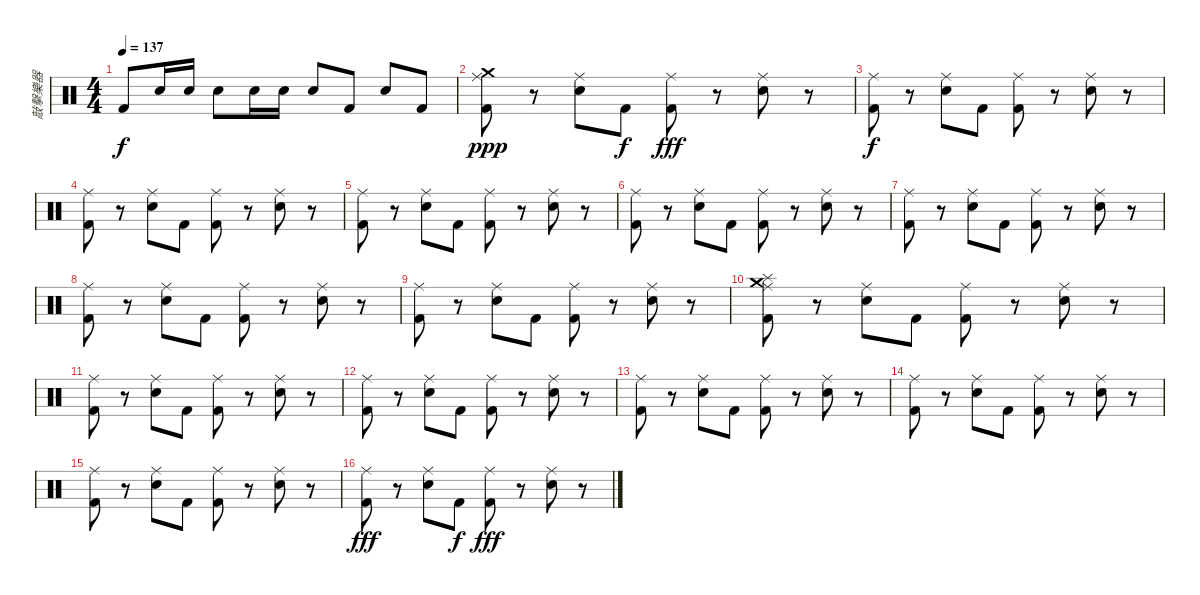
\track ("敲擊樂器" "敲擊樂器") {instrument percussion}
\staff {score}
\articulation defaults
\ts (4 4)
\tempo 137
\clef neutral
\ks c "Kick (hit) 2".8{dy f} "Snare (hit) 2".16 "Snare (hit) 2".16 "Snare (hit) 2".8 "Snare (hit) 2".16 "Snare (hit) 2".16 "Snare (hit) 2".8 "Kick (hit) 2".8 "Snare (hit) 2".8 "Kick (hit) 2".8
|
("Crash medium (hit)" "Kick (hit) 2" "Ride (middle)").8{dy ppp} r.8 ("Snare (hit) 2" "Ride (middle)").8 "Kick (hit) 2".8{dy f} ("Kick (hit) 2" "Ride (middle)").8{dy fff} r.8 ("Snare (hit) 2" "Ride (middle)").8 r.8 |
("Kick (hit) 2" "Ride (middle)").8{dy f} r.8 ("Snare (hit) 2" "Ride (middle)").8 "Kick (hit) 2".8 ("Kick (hit) 2" "Ride (middle)").8 r.8 ("Snare (hit) 2" "Ride (middle)").8 r.8 |
("Kick (hit) 2" "Ride (middle)").8 r.8 ("Snare (hit) 2" "Ride (middle)").8 "Kick (hit) 2".8 ("Kick (hit) 2" "Ride (middle)").8 r.8 ("Snare (hit) 2" "Ride (middle)").8 r.8 |
("Kick (hit) 2" "Ride (middle)").8 r.8 ("Snare (hit) 2" "Ride (middle)").8 "Kick (hit) 2".8 ("Kick (hit) 2" "Ride (middle)").8 r.8 ("Snare (hit) 2" "Ride (middle)").8 r.8 |
("Kick (hit) 2" "Ride (middle)").8 r.8 ("Snare (hit) 2" "Ride (middle)").8 "Kick (hit) 2".8 ("Kick (hit) 2" "Ride (middle)").8 r.8 ("Snare (hit) 2" "Ride (middle)").8 r.8 |
("Kick (hit) 2" "Ride (middle)").8 r.8 ("Snare (hit) 2" "Ride (middle)").8 "Kick (hit) 2".8 ("Kick (hit) 2" "Ride (middle)").8 r.8 ("Snare (hit) 2" "Ride (middle)").8 r.8 |
("Kick (hit) 2" "Ride (middle)").8 r.8 ("Snare (hit) 2" "Ride (middle)").8 "Kick (hit) 2".8 ("Kick (hit) 2" "Ride (middle)").8 r.8 ("Snare (hit) 2" "Ride (middle)").8 r.8 |
("Kick (hit) 2" "Ride (middle)").8 r.8 ("Snare (hit) 2" "Ride (middle)").8 "Kick (hit) 2".8 ("Kick (hit) 2" "Ride (middle)").8 r.8 ("Snare (hit) 2" "Ride (middle)").8 r.8 |
("Splash (hit)" "Crash medium (hit)" "Kick (hit) 2" "Ride (middle)").8 r.8 ("Snare (hit) 2" "Ride (middle)").8 "Kick (hit) 2".8 ("Kick (hit) 2" "Ride (middle)").8 r.8 ("Snare (hit) 2" "Ride (middle)").8 r.8 |
("Kick (hit) 2" "Ride (middle)").8 r.8 ("Snare (hit) 2" "Ride (middle)").8 "Kick (hit) 2".8 ("Kick (hit) 2" "Ride (middle)").8 r.8 ("Snare (hit) 2" "Ride (middle)").8 r.8 |
("Kick (hit) 2" "Ride (middle)").8 r.8 ("Snare (hit) 2" "Ride (middle)").8 "Kick (hit) 2".8 ("Kick (hit) 2" "Ride (middle)").8 r.8 ("Snare (hit) 2" "Ride (middle)").8 r.8 |
("Kick (hit) 2" "Ride (middle)").8 r.8 ("Snare (hit) 2" "Ride (middle)").8 "Kick (hit) 2".8 ("Kick (hit) 2" "Ride (middle)").8 r.8 ("Snare (hit) 2" "Ride (middle)").8 r.8 |
("Kick (hit) 2" "Ride (middle)").8 r.8 ("Snare (hit) 2" "Ride (middle)").8 "Kick (hit) 2".8 ("Kick (hit) 2" "Ride (middle)").8 r.8 ("Snare (hit) 2" "Ride (middle)").8 r.8 |
("Kick (hit) 2" "Ride (middle)").8 r.8 ("Snare (hit) 2" "Ride (middle)").8 "Kick (hit) 2".8 ("Kick (hit) 2" "Ride (middle)").8 r.8 ("Snare (hit) 2" "Ride (middle)").8 r.8 |
("Kick (hit) 2" "Ride (middle)").8{dy fff} r.8 ("Snare (hit) 2" "Ride (middle)").8 "Kick (hit) 2".8{dy f} ("Kick (hit) 2" "Ride (middle)").8{dy fff} r.8 ("Snare (hit) 2" "Ride (middle)").8 r.8
